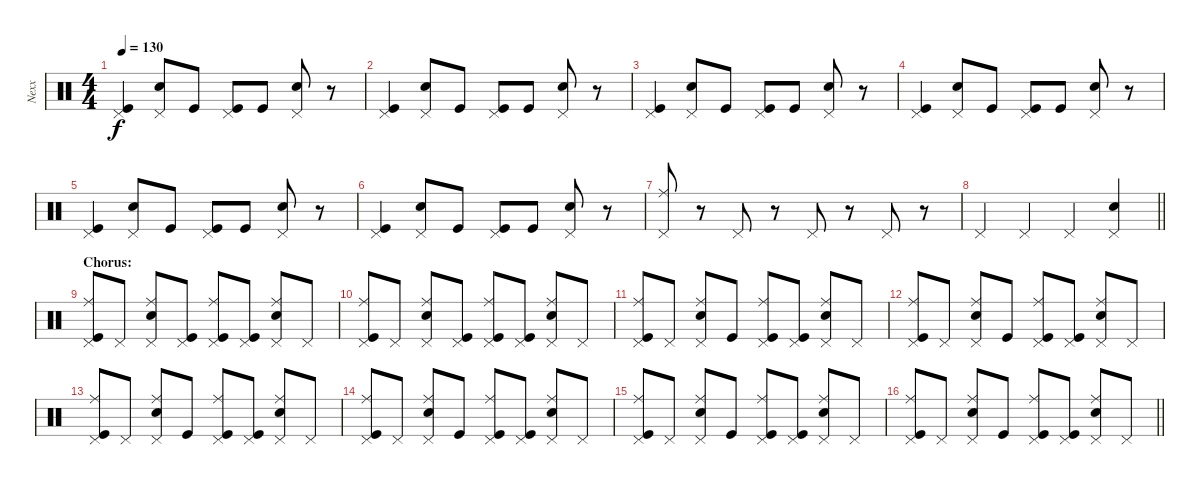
\track ("Nexx" "Nexx") {instrument percussion}
\staff {score}
\articulation defaults
\ts (4 4)
\tempo 130
\clef neutral
\ks c
("Pedal Hi-Hat (hit)" "Kick (hit)").4{dy f} ("Pedal Hi-Hat (hit)" "Electric Snare (hit)").8 "Kick (hit)".8 ("Pedal Hi-Hat (hit)" "Kick (hit)").8 "Kick (hit)".8 ("Pedal Hi-Hat (hit)" "Electric Snare (hit)").8 r.8 |
("Pedal Hi-Hat (hit)" "Kick (hit)").4 ("Pedal Hi-Hat (hit)" "Electric Snare (hit)").8 "Kick (hit)".8 ("Pedal Hi-Hat (hit)" "Kick (hit)").8 "Kick (hit)".8 ("Pedal Hi-Hat (hit)" "Electric Snare (hit)").8 r.8 |
("Pedal Hi-Hat (hit)" "Kick (hit)").4 ("Pedal Hi-Hat (hit)" "Electric Snare (hit)").8 "Kick (hit)".8 ("Pedal Hi-Hat (hit)" "Kick (hit)").8 "Kick (hit)".8 ("Pedal Hi-Hat (hit)" "Electric Snare (hit)").8 r.8 |
("Pedal Hi-Hat (hit)" "Kick (hit)").4 ("Pedal Hi-Hat (hit)" "Electric Snare (hit)").8 "Kick (hit)".8 ("Pedal Hi-Hat (hit)" "Kick (hit)").8 "Kick (hit)".8 ("Pedal Hi-Hat (hit)" "Electric Snare (hit)").8 r.8 |
("Pedal Hi-Hat (hit)" "Kick (hit)").4 ("Pedal Hi-Hat (hit)" "Electric Snare (hit)").8 "Kick (hit)".8 ("Pedal Hi-Hat (hit)" "Kick (hit)").8 "Kick (hit)".8 ("Pedal Hi-Hat (hit)" "Electric Snare (hit)").8 r.8 |
("Pedal Hi-Hat (hit)" "Kick (hit)").4 ("Pedal Hi-Hat (hit)" "Electric Snare (hit)").8 "Kick (hit)".8 ("Pedal Hi-Hat (hit)" "Kick (hit)").8 "Kick (hit)".8 ("Pedal Hi-Hat (hit)" "Electric Snare (hit)").8 r.8 |
("Pedal Hi-Hat (hit)" "Ride (middle)").8 r.8 "Pedal Hi-Hat (hit)".8 r.8 "Pedal Hi-Hat (hit)".8 r.8 "Pedal Hi-Hat (hit)".8 r.8 |
\barLineRight lightlight "Pedal Hi-Hat (hit)".4 "Pedal Hi-Hat (hit)".4 "Pedal Hi-Hat (hit)".4
("Electric Snare (hit)" "Pedal Hi-Hat (hit)").4 |
\section ("" "Chorus:")
("Ride (middle)" "Pedal Hi-Hat (hit)" "Kick (hit)").8 "Pedal Hi-Hat (hit)".8 ("Ride (middle)" "Pedal Hi-Hat (hit)" "Electric Snare (hit)").8 ("Pedal Hi-Hat (hit)" "Kick (hit)").8 ("Ride (middle)" "Pedal Hi-Hat (hit)" "Kick (hit)").8 ("Pedal Hi-Hat (hit)" "Kick (hit)").8 ("Ride (middle)" "Pedal Hi-Hat (hit)" "Electric Snare (hit)").8 "Pedal Hi-Hat (hit)".8 |
("Ride (middle)" "Pedal Hi-Hat (hit)" "Kick (hit)").8 "Pedal Hi-Hat (hit)".8 ("Ride (middle)" "Pedal Hi-Hat (hit)" "Electric Snare (hit)").8 ("Pedal Hi-Hat (hit)" "Kick (hit)").8 ("Ride (middle)" "Pedal Hi-Hat (hit)" "Kick (hit)").8 ("Pedal Hi-Hat (hit)" "Kick (hit)").8 ("Ride (middle)" "Pedal Hi-Hat (hit)" "Electric Snare (hit)").8 "Pedal Hi-Hat (hit)".8 |
("Ride (middle)" "Pedal Hi-Hat (hit)" "Kick (hit)").8 "Pedal Hi-Hat (hit)".8 ("Ride (middle)" "Pedal Hi-Hat (hit)" "Electric Snare (hit)").8 "Kick (hit)".8 ("Ride (middle)" "Pedal Hi-Hat (hit)" "Kick (hit)").8 ("Pedal Hi-Hat (hit)" "Kick (hit)").8 ("Ride (middle)" "Pedal Hi-Hat (hit)" "Electric Snare (hit)").8 "Pedal Hi-Hat (hit)".8 |
("Ride (middle)" "Pedal Hi-Hat (hit)" "Kick (hit)").8 "Pedal Hi-Hat (hit)".8 ("Ride (middle)" "Pedal Hi-Hat (hit)" "Electric Snare (hit)").8 "Kick (hit)".8 ("Ride (middle)" "Pedal Hi-Hat (hit)" "Kick (hit)").8 ("Pedal Hi-Hat (hit)" "Kick (hit)").8 ("Ride (middle)" "Pedal Hi-Hat (hit)" "Electric Snare (hit)").8 "Pedal Hi-Hat (hit)".8 |
("Ride (middle)" "Pedal Hi-Hat (hit)" "Kick (hit)").8 "Pedal Hi-Hat (hit)".8 ("Ride (middle)" "Pedal Hi-Hat (hit)" "Electric Snare (hit)").8 "Kick (hit)".8 ("Ride (middle)" "Pedal Hi-Hat (hit)" "Kick (hit)").8 ("Pedal Hi-Hat (hit)" "Kick (hit)").8 ("Ride (middle)" "Pedal Hi-Hat (hit)" "Electric Snare (hit)").8 "Pedal Hi-Hat (hit)".8 |
("Ride (middle)" "Pedal Hi-Hat (hit)" "Kick (hit)").8 "Pedal Hi-Hat (hit)".8 ("Ride (middle)" "Pedal Hi-Hat (hit)" "Electric Snare (hit)").8 "Kick (hit)".8 ("Ride (middle)" "Pedal Hi-Hat (hit)" "Kick (hit)").8 ("Pedal Hi-Hat (hit)" "Kick (hit)").8 ("Ride (middle)" "Pedal Hi-Hat (hit)" "Electric Snare (hit)").8 "Pedal Hi-Hat (hit)".8 |
("Ride (middle)" "Pedal Hi-Hat (hit)" "Kick (hit)").8 "Pedal Hi-Hat (hit)".8 ("Ride (middle)" "Pedal Hi-Hat (hit)" "Electric Snare (hit)").8 "Kick (hit)".8 ("Ride (middle)" "Pedal Hi-Hat (hit)" "Kick (hit)").8 ("Pedal Hi-Hat (hit)" "Kick (hit)").8 ("Ride (middle)" "Pedal Hi-Hat (hit)" "Electric Snare (hit)").8 "Pedal Hi-Hat (hit)".8 |
\barLineRight lightlight
("Ride (middle)" "Pedal Hi-Hat (hit)" "Kick (hit)").8 "Pedal Hi-Hat (hit)".8 ("Ride (middle)" "Pedal Hi-Hat (hit)" "Electric Snare (hit)").8 "Kick (hit)".8 ("Ride (middle)" "Pedal Hi-Hat (hit)" "Kick (hit)").8 ("Pedal Hi-Hat (hit)" "Kick (hit)").8 ("Ride (middle)" "Pedal Hi-Hat (hit)" "Electric Snare (hit)").8 "Pedal Hi-Hat (hit)".8
